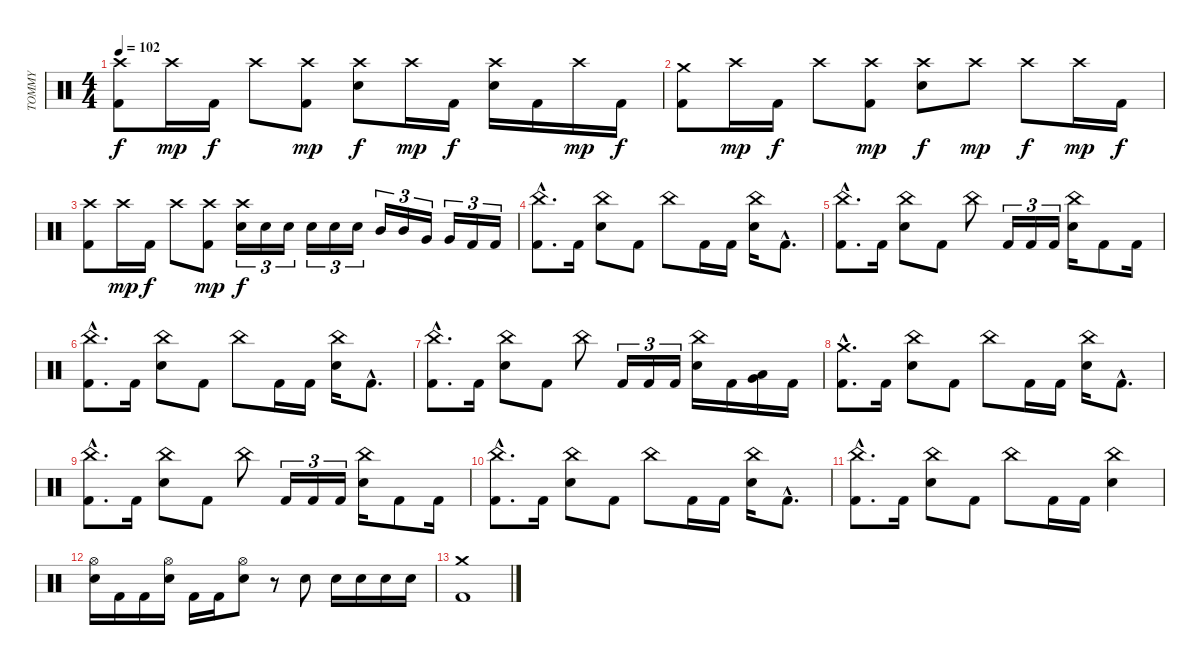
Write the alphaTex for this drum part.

\track ("TOMMY" "TOMMY") {instrument percussion}
\staff {score}
\articulation defaults
\ts (4 4)
\tempo 102
\clef neutral
\ks c
("Kick (hit) 2" "Crash high (hit)").8{dy f} "Crash high (hit)".16{dy mp} "Kick (hit) 2".16{dy f} "Crash high (hit)".8 ("Kick (hit) 2" "Crash high (hit)").8{dy mp} ("Snare (hit) 2" "Crash high (hit)").8{dy f} "Crash high (hit)".16{dy mp} "Kick (hit) 2".16{dy f} ("Snare (hit) 2" "Crash high (hit)").16 "Kick (hit) 2".16 "Crash high (hit)".16{dy mp} "Kick (hit) 2".16{dy f} |
("Kick (hit) 2" "Crash medium (hit)").8 "Crash high (hit)".16{dy mp} "Kick (hit) 2".16{dy f} "Crash high (hit)".8 ("Kick (hit) 2" "Crash high (hit)").8{dy mp} ("Snare (hit) 2" "Crash high (hit)").8{dy f} "Crash high (hit)".8{dy mp} "Crash high (hit)".8{dy f} "Crash high (hit)".16{dy mp} "Kick (hit) 2".16{dy f} |
("Kick (hit) 2" "Crash high (hit)").8 "Crash high (hit)".16{dy mp} "Kick (hit) 2".16{dy f} "Crash high (hit)".8 ("Kick (hit) 2" "Crash high (hit)").8{dy mp} ("Snare (hit) 2" "Crash high (hit)").16{tu (3 2) dy f} "Snare (hit) 2".16{tu (3 2)} "Snare (hit) 2".16{tu (3 2)} "Snare (hit) 2".16{tu (3 2)} "Snare (hit) 2".16{tu (3 2)} "Snare (hit) 2".16{tu (3 2)} "Mid Tom (hit)".16{tu (3 2)} "Mid Tom (hit)".16{tu (3 2)} "Very Low Tom (hit)".16{tu (3 2)} "Very Low Tom (hit)".16{tu (3 2)} "Kick (hit) 2".16{tu (3 2)} "Kick (hit) 2".16{tu (3 2)} |
("Kick (hit) 2"{hac} "China (hit)"{hac}).8{d} "Kick (hit) 2".16 ("Snare (hit) 2" "China (hit)").8 "Kick (hit) 2".8 "China (hit)".8 "Kick (hit) 2".16 "Kick (hit) 2".16 ("Snare (hit) 2" "China (hit)").16 "Kick (hit) 2"{hac}.8{d} |
("Kick (hit) 2"{hac} "China (hit)"{hac}).8{d} "Kick (hit) 2".16 ("Snare (hit) 2" "China (hit)").8 "Kick (hit) 2".8 "China (hit)".8 "Kick (hit) 2".16{tu (3 2)} "Kick (hit) 2".16{tu (3 2)} "Kick (hit) 2".16{tu (3 2)} ("Snare (hit) 2" "China (hit)").16 "Kick (hit) 2".8 "Kick (hit) 2".16 |
("Kick (hit) 2"{hac} "China (hit)"{hac}).8{d} "Kick (hit) 2".16 ("Snare (hit) 2" "China (hit)").8 "Kick (hit) 2".8 "China (hit)".8 "Kick (hit) 2".16 "Kick (hit) 2".16 ("Snare (hit) 2" "China (hit)").16 "Kick (hit) 2"{hac}.8{d} |
("Kick (hit) 2"{hac} "China (hit)"{hac}).8{d} "Kick (hit) 2".16 ("Snare (hit) 2" "China (hit)").8 "Kick (hit) 2".8 "China (hit)".8 "Kick (hit) 2".16{tu (3 2)} "Kick (hit) 2".16{tu (3 2)} "Kick (hit) 2".16{tu (3 2)} ("Snare (hit) 2" "China (hit)").16 "Kick (hit) 2".16 ("Very Low Tom (hit)" "Low Floor Tom (hit)").16 "Kick (hit) 2".16 |
("Kick (hit) 2"{hac} "Crash medium (hit)"{hac}).8{d} "Kick (hit) 2".16 ("Snare (hit) 2" "China (hit)").8 "Kick (hit) 2".8 "China (hit)".8 "Kick (hit) 2".16 "Kick (hit) 2".16 ("Snare (hit) 2" "China (hit)").16 "Kick (hit) 2"{hac}.8{d} |
("Kick (hit) 2"{hac} "China (hit)"{hac}).8{d} "Kick (hit) 2".16 ("Snare (hit) 2" "China (hit)").8 "Kick (hit) 2".8 "China (hit)".8 "Kick (hit) 2".16{tu (3 2)} "Kick (hit) 2".16{tu (3 2)} "Kick (hit) 2".16{tu (3 2)} ("Snare (hit) 2" "China (hit)").16 "Kick (hit) 2".8 "Kick (hit) 2".16 |
("Kick (hit) 2"{hac} "China (hit)"{hac}).8{d} "Kick (hit) 2".16 ("Snare (hit) 2" "China (hit)").8 "Kick (hit) 2".8 "China (hit)".8 "Kick (hit) 2".16 "Kick (hit) 2".16 ("Snare (hit) 2" "China (hit)").16 "Kick (hit) 2"{hac}.8{d} |
("Kick (hit) 2"{hac} "China (hit)"{hac}).8{d} "Kick (hit) 2".16 ("Snare (hit) 2" "China (hit)").8 "Kick (hit) 2".8 "China (hit)".8 "Kick (hit) 2".16 "Kick (hit) 2".16 ("Snare (hit) 2" "China (hit)").4 |
("Snare (hit) 2" "Hi-Hat (open)").16 "Kick (hit) 2".16 "Kick (hit) 2".16 ("Snare (hit) 2" "Hi-Hat (open)").16 "Kick (hit) 2".16 "Kick (hit) 2".16 ("Snare (hit) 2" "Hi-Hat (open)").8 r.8 "Snare (hit) 2".8 "Snare (hit) 2".16 "Snare (hit) 2".16 "Snare (hit) 2".16 "Snare (hit) 2".16 |
("Kick (hit) 2" "Crash medium (hit)").1
